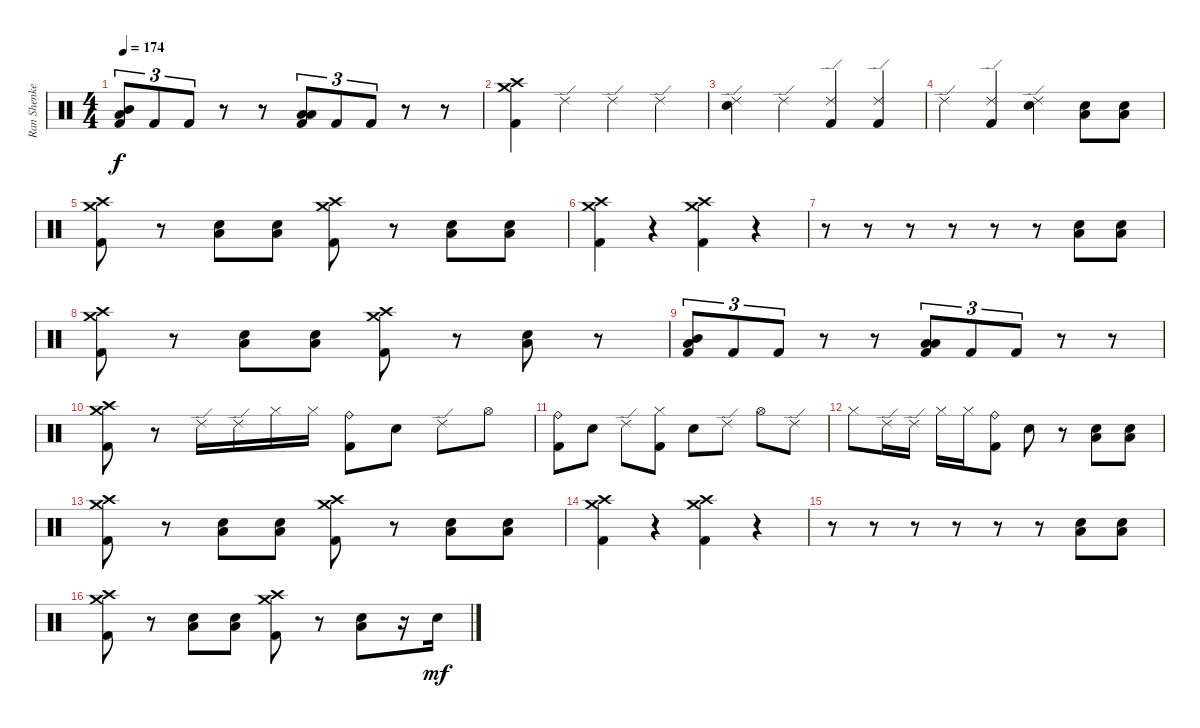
\track ("Ran Shenkerman" "Ran Shenke") {instrument percussion}
\staff {score}
\articulation defaults
\ts (4 4)
\tempo 174
\clef neutral
\ks c
("Mid Tom (hit)" "Low Tom (hit)" "Kick (hit) 2").8{tu (3 2) dy f} "Kick (hit) 2".8{tu (3 2)} "Kick (hit) 2".8{tu (3 2)} r.8 r.8 ("Low Tom (hit)" "Low Floor Tom (hit)" "Kick (hit) 2").8{tu (3 2)} "Kick (hit) 2".8{tu (3 2)} "Kick (hit) 2".8{tu (3 2)} r.8 r.8 |
("Crash medium (hit)" "Crash high (hit)" "Kick (hit) 2").4 "Ride (edge) 2".4 "Ride (edge) 2".4 "Ride (edge) 2".4 |
("Ride (edge) 2" "Snare (hit) 2").4 "Ride (edge) 2".4 ("Ride (edge) 2" "Kick (hit) 2").4 ("Ride (edge) 2" "Kick (hit) 2").4 |
"Ride (edge) 2".4 ("Ride (edge) 2" "Kick (hit) 2").4 ("Ride (edge) 2" "Snare (hit) 2").4 ("Snare (hit) 2" "Low Floor Tom (hit)").8 ("Snare (hit) 2" "Low Floor Tom (hit)").8 |
("Crash high (hit)" "Crash medium (hit)" "Kick (hit) 2").8 r.8 ("Snare (hit) 2" "Low Floor Tom (hit)").8 ("Snare (hit) 2" "Low Floor Tom (hit)").8 ("Crash high (hit)" "Crash medium (hit)" "Kick (hit) 2").8 r.8 ("Snare (hit) 2" "Low Floor Tom (hit)").8 ("Snare (hit) 2" "Low Floor Tom (hit)").8 |
("Crash high (hit)" "Crash medium (hit)" "Kick (hit) 2").4 r.4 ("Crash high (hit)" "Crash medium (hit)" "Kick (hit) 2").4 r.4 |
r.8 r.8 r.8 r.8 r.8 r.8 ("Snare (hit) 2" "Low Floor Tom (hit)").8 ("Snare (hit) 2" "Low Floor Tom (hit)").8 |
("Crash high (hit)" "Crash medium (hit)" "Kick (hit) 2").8 r.8 ("Snare (hit) 2" "Low Floor Tom (hit)").8 ("Snare (hit) 2" "Low Floor Tom (hit)").8 ("Crash high (hit)" "Crash medium (hit)" "Kick (hit) 2").8 r.8 ("Snare (hit) 2" "Low Floor Tom (hit)").8 r.8 |
("Mid Tom (hit)" "Low Tom (hit)" "Kick (hit) 2").8{tu (3 2)} "Kick (hit) 2".8{tu (3 2)} "Kick (hit) 2".8{tu (3 2)} r.8 r.8 ("Low Tom (hit)" "Low Floor Tom (hit)" "Kick (hit) 2").8{tu (3 2)} "Kick (hit) 2".8{tu (3 2)} "Kick (hit) 2".8{tu (3 2)} r.8 r.8 |
("Crash high (hit)" "Crash medium (hit)" "Kick (hit) 2").8 r.8 "Ride (edge) 2".16 "Ride (edge) 2".16 "Hi-Hat (closed)".16 "Hi-Hat (closed)".16 ("Ride (bell)" "Kick (hit) 2").8 "Snare (hit) 2".8 "Ride (edge) 2".8 "Hi-Hat (open)".8 |
("Ride (bell)" "Kick (hit) 2").8 "Snare (hit) 2".8 "Ride (edge) 2".8 ("Hi-Hat (closed)" "Kick (hit) 2").8 "Snare (hit) 2".8 "Ride (edge) 2".8 "Hi-Hat (open)".8 "Ride (edge) 2".8 |
"Hi-Hat (closed)".8 "Ride (edge) 2".16 "Ride (edge) 2".16 "Hi-Hat (closed)".16 "Hi-Hat (closed)".16 ("Ride (bell)" "Kick (hit) 2").8 "Snare (hit) 2".8 r.8 ("Snare (hit) 2" "Low Floor Tom (hit)").8 ("Snare (hit) 2" "Low Floor Tom (hit)").8 |
("Crash high (hit)" "Crash medium (hit)" "Kick (hit) 2").8 r.8 ("Snare (hit) 2" "Low Floor Tom (hit)").8 ("Snare (hit) 2" "Low Floor Tom (hit)").8 ("Crash high (hit)" "Crash medium (hit)" "Kick (hit) 2").8 r.8 ("Snare (hit) 2" "Low Floor Tom (hit)").8 ("Snare (hit) 2" "Low Floor Tom (hit)").8 |
("Crash high (hit)" "Crash medium (hit)" "Kick (hit) 2").4 r.4 ("Crash high (hit)" "Crash medium (hit)" "Kick (hit) 2").4 r.4 |
r.8 r.8 r.8 r.8 r.8 r.8 ("Snare (hit) 2" "Low Floor Tom (hit)").8 ("Snare (hit) 2" "Low Floor Tom (hit)").8 |
("Crash high (hit)" "Crash medium (hit)" "Kick (hit) 2").8 r.8 ("Snare (hit) 2" "Low Floor Tom (hit)").8 ("Snare (hit) 2" "Low Floor Tom (hit)").8 ("Crash high (hit)" "Crash medium (hit)" "Kick (hit) 2").8 r.8 ("Snare (hit) 2" "Low Floor Tom (hit)").8 r.16 "Snare (hit) 2".16{dy mf}
